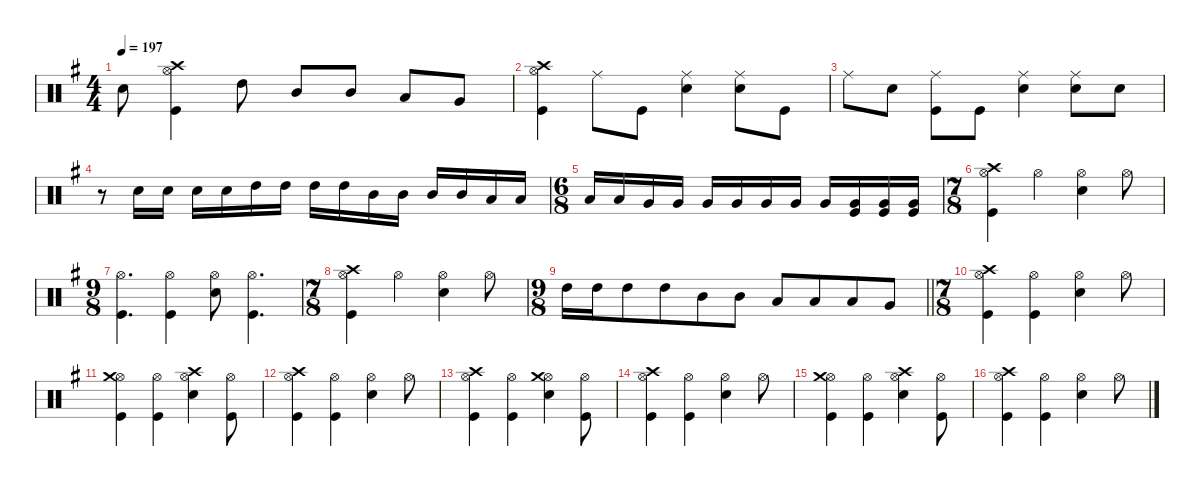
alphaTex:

\defaultSystemsLayout 4
\hideDynamics
\bracketExtendMode nobrackets
\singleTrackTrackNamePolicy hidden
\multiTrackTrackNamePolicy hidden
\firstSystemTrackNameMode fullname
\firstSystemTrackNameOrientation horizontal
\otherSystemsTrackNameOrientation horizontal
\track ("Drums" "drm.") {defaultSystemsLayout 4 instrument percussion}
\staff {score}
\articulation defaults
\ts (4 4)
\tempo 197
\clef neutral
\ks eminor "Snare (hit) 2"{acc forcenatural}.8{dy f beam Down}
("Crash high (hit)"{acc forcenatural} "Hi-Hat (open)"{acc forcenatural} "Kick (hit)"{acc forcenatural}).4{beam Down} "High Tom (hit)"{acc forcenatural}.8{beam Down} "Mid Tom (hit)"{acc forcenatural}.8{beam Up} "Mid Tom (hit)"{acc forcenatural}.8{beam Up} "Low Tom (hit)"{acc forcenatural}.8{beam Up} "Very Low Tom (hit)"{acc forcenatural}.8{beam Up} |
("Hi-Hat (open)"{acc forcenatural} "Crash high (hit)"{acc forcenatural} "Kick (hit)"{acc forcenatural}).4{beam Down} "Ride (middle)"{acc forcenatural}.8{beam Down} "Kick (hit)"{acc forcenatural}.8{beam Down} ("Ride (middle)"{acc forcenatural} "Snare (hit) 2"{acc forcenatural}).4{beam Down} ("Ride (middle)"{acc forcenatural} "Snare (hit) 2"{acc forcenatural}).8{beam Down} "Kick (hit)"{acc forcenatural}.8{beam Down} |
"Ride (middle)"{acc forcenatural}.8{beam Down} "Snare (hit) 2"{acc forcenatural}.8{beam Down} ("Ride (middle)"{acc forcenatural} "Kick (hit)"{acc forcenatural}).8{beam Down} "Kick (hit)"{acc forcenatural}.8{beam Down} ("Ride (middle)"{acc forcenatural} "Snare (hit) 2"{acc forcenatural}).4{beam Down} ("Ride (middle)"{acc forcenatural} "Snare (hit) 2"{acc forcenatural}).8{beam Down} "Snare (hit) 2"{acc forcenatural}.8{beam Down} |
r.8{beam Down} "Snare (hit) 2"{acc forcenatural}.16{beam Down} "Snare (hit) 2"{acc forcenatural}.16{beam Down} "Snare (hit) 2"{acc forcenatural}.16{beam Down} "Snare (hit) 2"{acc forcenatural}.16{beam Down} "High Tom (hit)"{acc forcenatural}.16{beam Down} "High Tom (hit)"{acc forcenatural}.16{beam Down} "High Tom (hit)"{acc forcenatural}.16{beam Down} "High Tom (hit)"{acc forcenatural}.16{beam Down} "Mid Tom (hit)"{acc forcenatural}.16{beam Down} "Mid Tom (hit)"{acc forcenatural}.16{beam Down} "Mid Tom (hit)"{acc forcenatural}.16{beam Up} "Mid Tom (hit)"{acc forcenatural}.16{beam Up} "Low Tom (hit)"{acc forcenatural}.16{beam Up} "Low Tom (hit)"{acc forcenatural}.16{beam Up} |
\ts (6 8)
\beaming (8 2 2 2 2)
"Low Tom (hit)"{acc forcenatural}.16{beam Up} "Low Tom (hit)"{acc forcenatural}.16{beam Up} "Very Low Tom (hit)"{acc forcenatural}.16{beam Up} "Very Low Tom (hit)"{acc forcenatural}.16{beam Up} "Very Low Tom (hit)"{acc forcenatural}.16{beam Up} "Very Low Tom (hit)"{acc forcenatural}.16{beam Up} "Very Low Tom (hit)"{acc forcenatural}.16{beam Up} "Very Low Tom (hit)"{acc forcenatural}.16{beam Up} "Very Low Tom (hit)"{acc forcenatural}.16{beam Up} ("Kick (hit)"{acc forcenatural} "Very Low Tom (hit)"{acc forcenatural}).16{beam Up} ("Kick (hit)"{acc forcenatural} "Very Low Tom (hit)"{acc forcenatural}).16{beam Up} ("Kick (hit)"{acc forcenatural} "Very Low Tom (hit)"{acc forcenatural}).16{beam Up} |
\ts (7 8)
\beaming (8 2 2 2 2)
("Crash high (hit)"{acc forcenatural} "Hi-Hat (open)"{acc forcenatural} "Kick (hit)"{acc forcenatural}).4{beam Down} "Hi-Hat (open)"{acc forcenatural}.4{beam Down} ("Hi-Hat (open)"{acc forcenatural} "Snare (hit) 2"{acc forcenatural}).4{beam Down} "Hi-Hat (open)"{acc forcenatural}.8{beam Down} |
\ts (9 8)
\beaming (8 2 2 2 2)
("Hi-Hat (open)"{acc forcenatural} "Kick (hit)"{acc forcenatural}).4{d beam Down} ("Hi-Hat (open)"{acc forcenatural} "Kick (hit)"{acc forcenatural}).4{beam Down} ("Hi-Hat (open)"{acc forcenatural} "Snare (hit) 2"{acc forcenatural}).8{beam Down} ("Hi-Hat (open)"{acc forcenatural} "Kick (hit)"{acc forcenatural}).4{d beam Down} |
\ts (7 8)
\beaming (8 2 2 2 2)
("Crash high (hit)"{acc forcenatural} "Hi-Hat (open)"{acc forcenatural} "Kick (hit)"{acc forcenatural}).4{beam Down} "Hi-Hat (open)"{acc forcenatural}.4{beam Down} ("Hi-Hat (open)"{acc forcenatural} "Snare (hit) 2"{acc forcenatural}).4{beam Down} "Hi-Hat (open)"{acc forcenatural}.8{beam Down} |
\ts (9 8)
\beaming (8 2 2 2 2)
\barLineRight lightlight "High Tom (hit)"{acc forcenatural}.16{beam Down} "High Tom (hit)"{acc forcenatural}.16{beam Down beam merge} "High Tom (hit)"{acc forcenatural}.8{beam Down beam merge} "High Tom (hit)"{acc forcenatural}.8{beam Down beam merge} "Mid Tom (hit)"{acc forcenatural}.8{beam Down beam merge} "Mid Tom (hit)"{acc forcenatural}.8{beam Down beam split} "Low Tom (hit)"{acc forcenatural}.8{dy ff beam Up beam merge} "Low Tom (hit)"{acc forcenatural}.8{beam Up beam merge} "Low Tom (hit)"{acc forcenatural}.8{dy fff beam Up beam merge} "Very Low Tom (hit)"{acc forcenatural}.8{beam Up}
|
\ts (7 8)
\beaming (8 2 2 3)
("Hi-Hat (open)"{acc forcenatural} "Crash high (hit)"{acc forcenatural} "Kick (hit)"{acc forcenatural}).4{dy f beam Down} ("Hi-Hat (open)"{acc forcenatural} "Kick (hit)"{acc forcenatural}).4{beam Down} ("Hi-Hat (open)"{acc forcenatural} "Snare (hit) 2"{acc forcenatural}).4{beam Down} "Hi-Hat (open)"{acc forcenatural}.8{beam Down} |
("Hi-Hat (open)"{acc forcenatural} "Crash medium (hit)"{acc forcenatural} "Kick (hit)"{acc forcenatural}).4{beam Down} ("Hi-Hat (open)"{acc forcenatural} "Kick (hit)"{acc forcenatural}).4{beam Down} ("Hi-Hat (open)"{acc forcenatural} "Crash high (hit)"{acc forcenatural} "Snare (hit) 2"{acc forcenatural}).4{beam Down} ("Hi-Hat (open)"{acc forcenatural} "Kick (hit)"{acc forcenatural}).8{beam Down} |
("Hi-Hat (open)"{acc forcenatural} "Crash high (hit)"{acc forcenatural} "Kick (hit)"{acc forcenatural}).4{beam Down} ("Hi-Hat (open)"{acc forcenatural} "Kick (hit)"{acc forcenatural}).4{beam Down} ("Hi-Hat (open)"{acc forcenatural} "Snare (hit) 2"{acc forcenatural}).4{beam Down} "Hi-Hat (open)"{acc forcenatural}.8{beam Down} |
("Hi-Hat (open)"{acc forcenatural} "Crash high (hit)"{acc forcenatural} "Kick (hit)"{acc forcenatural}).4{beam Down} ("Hi-Hat (open)"{acc forcenatural} "Kick (hit)"{acc forcenatural}).4{beam Down} ("Hi-Hat (open)"{acc forcenatural} "Crash medium (hit)"{acc forcenatural} "Snare (hit) 2"{acc forcenatural}).4{beam Down} ("Hi-Hat (open)"{acc forcenatural} "Kick (hit)"{acc forcenatural}).8{beam Down} |
("Hi-Hat (open)"{acc forcenatural} "Crash high (hit)"{acc forcenatural} "Kick (hit)"{acc forcenatural}).4{beam Down} ("Hi-Hat (open)"{acc forcenatural} "Kick (hit)"{acc forcenatural}).4{beam Down} ("Hi-Hat (open)"{acc forcenatural} "Snare (hit) 2"{acc forcenatural}).4{beam Down} "Hi-Hat (open)"{acc forcenatural}.8{beam Down} |
("Hi-Hat (open)"{acc forcenatural} "Crash medium (hit)"{acc forcenatural} "Kick (hit)"{acc forcenatural}).4{beam Down} ("Hi-Hat (open)"{acc forcenatural} "Kick (hit)"{acc forcenatural}).4{beam Down} ("Hi-Hat (open)"{acc forcenatural} "Crash high (hit)"{acc forcenatural} "Snare (hit) 2"{acc forcenatural}).4{beam Down} ("Hi-Hat (open)"{acc forcenatural} "Kick (hit)"{acc forcenatural}).8{beam Down} |
("Hi-Hat (open)"{acc forcenatural} "Crash high (hit)"{acc forcenatural} "Kick (hit)"{acc forcenatural}).4{beam Down} ("Hi-Hat (open)"{acc forcenatural} "Kick (hit)"{acc forcenatural}).4{beam Down} ("Hi-Hat (open)"{acc forcenatural} "Snare (hit) 2"{acc forcenatural}).4{beam Down} "Hi-Hat (open)"{acc forcenatural}.8{beam Down}
